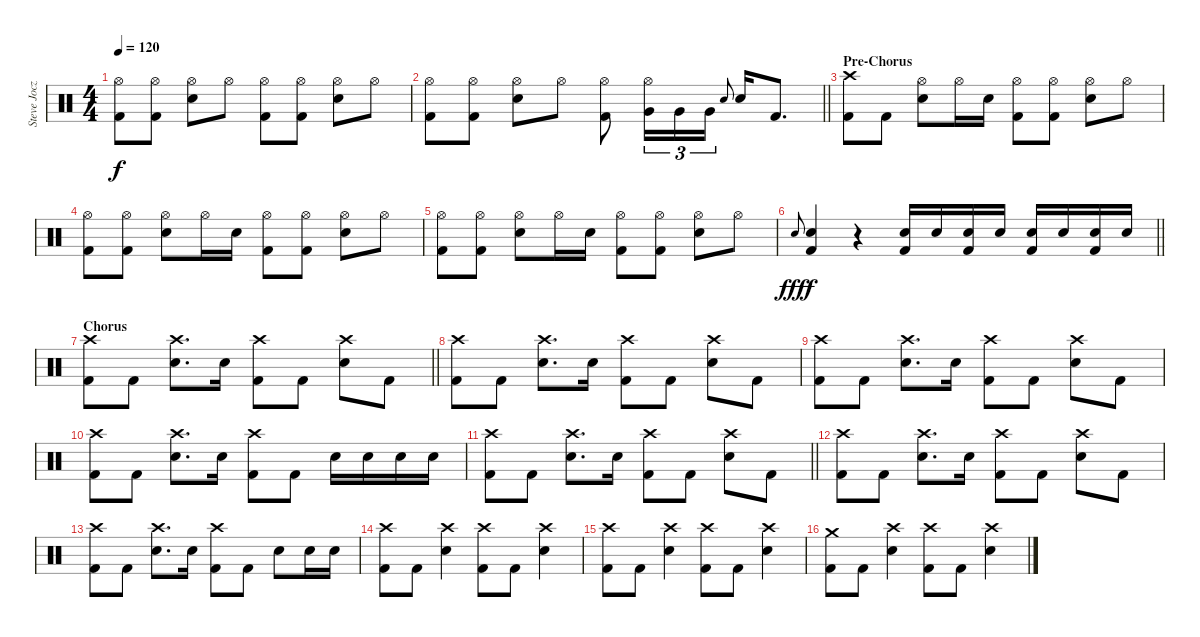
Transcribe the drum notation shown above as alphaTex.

\track ("Steve Jocz" "Steve Jocz") {instrument percussion}
\staff {score}
\articulation defaults
\ts (4 4)
\tempo 120
\clef neutral
\ks c
("Hi-Hat (open)" "Kick (hit) 2").8{dy f} ("Hi-Hat (open)" "Kick (hit) 2").8 ("Hi-Hat (open)" "Snare (hit) 2").8 "Hi-Hat (open)".8 ("Hi-Hat (open)" "Kick (hit) 2").8 ("Hi-Hat (open)" "Kick (hit) 2").8 ("Hi-Hat (open)" "Snare (hit) 2").8 "Hi-Hat (open)".8 |
\barLineRight lightlight
("Hi-Hat (open)" "Kick (hit) 2").8 ("Hi-Hat (open)" "Kick (hit) 2").8 ("Hi-Hat (open)" "Snare (hit) 2").8 "Hi-Hat (open)".8 ("Hi-Hat (open)" "Kick (hit) 2").8 ("Hi-Hat (open)" "Very Low Tom (hit)").16{tu (3 2)} "Very Low Tom (hit)".16{tu (3 2)} "Very Low Tom (hit)".16{tu (3 2)} "Snare (hit) 2".8{gr onbeat} "Snare (hit) 2".16 "Kick (hit) 2".8{d} |
\section ("" "Pre-Chorus")
("Crash high (hit)" "Kick (hit) 2").8 "Kick (hit) 2".8 ("Hi-Hat (open)" "Snare (hit) 2").8 "Hi-Hat (open)".16 "Snare (hit) 2".16 ("Hi-Hat (open)" "Kick (hit) 2").8 ("Hi-Hat (open)" "Kick (hit) 2").8 ("Hi-Hat (open)" "Snare (hit) 2").8 "Hi-Hat (open)".8 |
("Hi-Hat (open)" "Kick (hit) 2").8 ("Hi-Hat (open)" "Kick (hit) 2").8 ("Hi-Hat (open)" "Snare (hit) 2").8 "Hi-Hat (open)".16 "Snare (hit) 2".16 ("Hi-Hat (open)" "Kick (hit) 2").8 ("Hi-Hat (open)" "Kick (hit) 2").8 ("Hi-Hat (open)" "Snare (hit) 2").8 "Hi-Hat (open)".8 |
("Hi-Hat (open)" "Kick (hit) 2").8 ("Hi-Hat (open)" "Kick (hit) 2").8 ("Hi-Hat (open)" "Snare (hit) 2").8 "Hi-Hat (open)".16 "Snare (hit) 2".16 ("Hi-Hat (open)" "Kick (hit) 2").8 ("Hi-Hat (open)" "Kick (hit) 2").8 ("Hi-Hat (open)" "Snare (hit) 2").8 "Hi-Hat (open)".8 |
\barLineRight lightlight "Snare (hit) 2".8{gr onbeat dy fff}
("Snare (hit) 2" "Kick (hit) 2").4{dy f} r.4 ("Snare (hit) 2" "Kick (hit) 2").16 "Snare (hit) 2".16 ("Snare (hit) 2" "Kick (hit) 2").16 "Snare (hit) 2".16 ("Snare (hit) 2" "Kick (hit) 2").16 "Snare (hit) 2".16 ("Snare (hit) 2" "Kick (hit) 2").16 "Snare (hit) 2".16 |
\section ("" "Chorus")
\barLineRight lightlight
("Crash high (hit)" "Kick (hit) 2").8 "Kick (hit) 2".8 ("Crash high (hit)" "Snare (hit) 2").8{d} "Snare (hit) 2".16 ("Crash high (hit)" "Kick (hit) 2").8 "Kick (hit) 2".8 ("Crash high (hit)" "Snare (hit) 2").8 "Kick (hit) 2".8 |
("Crash high (hit)" "Kick (hit) 2").8 "Kick (hit) 2".8 ("Crash high (hit)" "Snare (hit) 2").8{d} "Snare (hit) 2".16 ("Crash high (hit)" "Kick (hit) 2").8 "Kick (hit) 2".8 ("Crash high (hit)" "Snare (hit) 2").8 "Kick (hit) 2".8 |
("Crash high (hit)" "Kick (hit) 2").8 "Kick (hit) 2".8 ("Crash high (hit)" "Snare (hit) 2").8{d} "Snare (hit) 2".16 ("Crash high (hit)" "Kick (hit) 2").8 "Kick (hit) 2".8 ("Crash high (hit)" "Snare (hit) 2").8 "Kick (hit) 2".8 |
("Crash high (hit)" "Kick (hit) 2").8 "Kick (hit) 2".8 ("Crash high (hit)" "Snare (hit) 2").8{d} "Snare (hit) 2".16 ("Crash high (hit)" "Kick (hit) 2").8 "Kick (hit) 2".8 "Snare (hit) 2".16 "Snare (hit) 2".16 "Snare (hit) 2".16 "Snare (hit) 2".16 |
\barLineRight lightlight
("Crash high (hit)" "Kick (hit) 2").8 "Kick (hit) 2".8 ("Crash high (hit)" "Snare (hit) 2").8{d} "Snare (hit) 2".16 ("Crash high (hit)" "Kick (hit) 2").8 "Kick (hit) 2".8 ("Crash high (hit)" "Snare (hit) 2").8 "Kick (hit) 2".8 |
("Crash high (hit)" "Kick (hit) 2").8 "Kick (hit) 2".8 ("Crash high (hit)" "Snare (hit) 2").8{d} "Snare (hit) 2".16 ("Crash high (hit)" "Kick (hit) 2").8 "Kick (hit) 2".8 ("Crash high (hit)" "Snare (hit) 2").8 "Kick (hit) 2".8 |
("Crash high (hit)" "Kick (hit) 2").8 "Kick (hit) 2".8 ("Crash high (hit)" "Snare (hit) 2").8{d} "Snare (hit) 2".16 ("Crash high (hit)" "Kick (hit) 2").8 "Kick (hit) 2".8 "Snare (hit) 2".8 "Snare (hit) 2".16 "Snare (hit) 2".16 |
("Crash high (hit)" "Kick (hit) 2").8 "Kick (hit) 2".8 ("Crash high (hit)" "Snare (hit) 2").4 ("Crash high (hit)" "Kick (hit) 2").8 "Kick (hit) 2".8 ("Crash high (hit)" "Snare (hit) 2").4 |
("Crash high (hit)" "Kick (hit) 2").8 "Kick (hit) 2".8 ("Crash high (hit)" "Snare (hit) 2").4 ("Crash high (hit)" "Kick (hit) 2").8 "Kick (hit) 2".8 ("Crash high (hit)" "Snare (hit) 2").4 |
("Crash medium (hit)" "Kick (hit) 2").8 "Kick (hit) 2".8 ("Crash high (hit)" "Snare (hit) 2").4 ("Crash high (hit)" "Kick (hit) 2").8 "Kick (hit) 2".8 ("Crash high (hit)" "Snare (hit) 2").4
